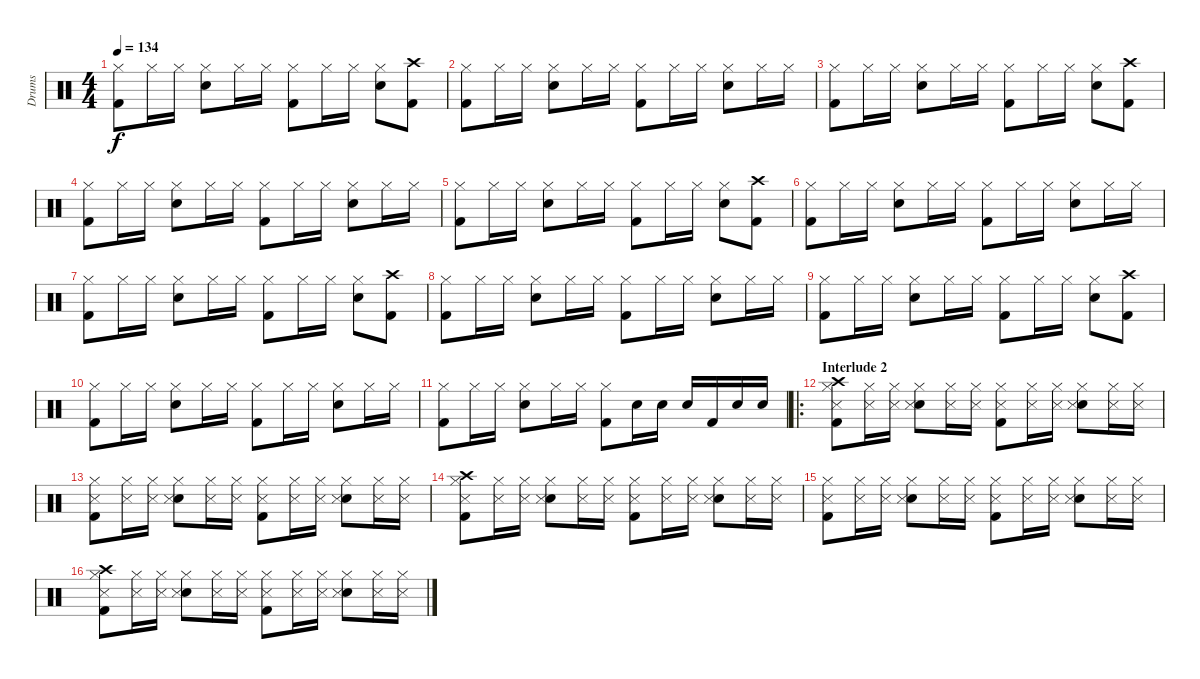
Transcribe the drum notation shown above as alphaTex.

\track ("Drums" "Drums") {instrument percussion}
\staff {score}
\articulation defaults
\ts (4 4)
\tempo 134
\clef neutral
\ks c
("Kick (hit) 2" "Hi-Hat (closed)").8{dy f} "Hi-Hat (closed)".16 "Hi-Hat (closed)".16 ("Snare (hit) 2" "Hi-Hat (closed)").8 "Hi-Hat (closed)".16 "Hi-Hat (closed)".16 ("Kick (hit) 2" "Hi-Hat (closed)").8 "Hi-Hat (closed)".16 "Hi-Hat (closed)".16 ("Snare (hit) 2" "Hi-Hat (closed)").8 ("Kick (hit) 2" "Crash high (hit)").8 |
("Kick (hit) 2" "Hi-Hat (closed)").8 "Hi-Hat (closed)".16 "Hi-Hat (closed)".16 ("Snare (hit) 2" "Hi-Hat (closed)").8 "Hi-Hat (closed)".16 "Hi-Hat (closed)".16 ("Kick (hit) 2" "Hi-Hat (closed)").8 "Hi-Hat (closed)".16 "Hi-Hat (closed)".16 ("Snare (hit) 2" "Hi-Hat (closed)").8 "Hi-Hat (closed)".16 "Hi-Hat (closed)".16 |
("Kick (hit) 2" "Hi-Hat (closed)").8 "Hi-Hat (closed)".16 "Hi-Hat (closed)".16 ("Snare (hit) 2" "Hi-Hat (closed)").8 "Hi-Hat (closed)".16 "Hi-Hat (closed)".16 ("Kick (hit) 2" "Hi-Hat (closed)").8 "Hi-Hat (closed)".16 "Hi-Hat (closed)".16 ("Snare (hit) 2" "Hi-Hat (closed)").8 ("Kick (hit) 2" "Crash high (hit)").8 |
("Kick (hit) 2" "Hi-Hat (closed)").8 "Hi-Hat (closed)".16 "Hi-Hat (closed)".16 ("Snare (hit) 2" "Hi-Hat (closed)").8 "Hi-Hat (closed)".16 "Hi-Hat (closed)".16 ("Kick (hit) 2" "Hi-Hat (closed)").8 "Hi-Hat (closed)".16 "Hi-Hat (closed)".16 ("Snare (hit) 2" "Hi-Hat (closed)").8 "Hi-Hat (closed)".16 "Hi-Hat (closed)".16 |
("Kick (hit) 2" "Hi-Hat (closed)").8 "Hi-Hat (closed)".16 "Hi-Hat (closed)".16 ("Snare (hit) 2" "Hi-Hat (closed)").8 "Hi-Hat (closed)".16 "Hi-Hat (closed)".16 ("Kick (hit) 2" "Hi-Hat (closed)").8 "Hi-Hat (closed)".16 "Hi-Hat (closed)".16 ("Snare (hit) 2" "Hi-Hat (closed)").8 ("Kick (hit) 2" "Crash high (hit)").8 |
("Kick (hit) 2" "Hi-Hat (closed)").8 "Hi-Hat (closed)".16 "Hi-Hat (closed)".16 ("Snare (hit) 2" "Hi-Hat (closed)").8 "Hi-Hat (closed)".16 "Hi-Hat (closed)".16 ("Kick (hit) 2" "Hi-Hat (closed)").8 "Hi-Hat (closed)".16 "Hi-Hat (closed)".16 ("Snare (hit) 2" "Hi-Hat (closed)").8 "Hi-Hat (closed)".16 "Hi-Hat (closed)".16 |
("Kick (hit) 2" "Hi-Hat (closed)").8 "Hi-Hat (closed)".16 "Hi-Hat (closed)".16 ("Snare (hit) 2" "Hi-Hat (closed)").8 "Hi-Hat (closed)".16 "Hi-Hat (closed)".16 ("Kick (hit) 2" "Hi-Hat (closed)").8 "Hi-Hat (closed)".16 "Hi-Hat (closed)".16 ("Snare (hit) 2" "Hi-Hat (closed)").8 ("Kick (hit) 2" "Crash high (hit)").8 |
("Kick (hit) 2" "Hi-Hat (closed)").8 "Hi-Hat (closed)".16 "Hi-Hat (closed)".16 ("Snare (hit) 2" "Hi-Hat (closed)").8 "Hi-Hat (closed)".16 "Hi-Hat (closed)".16 ("Kick (hit) 2" "Hi-Hat (closed)").8 "Hi-Hat (closed)".16 "Hi-Hat (closed)".16 ("Snare (hit) 2" "Hi-Hat (closed)").8 "Hi-Hat (closed)".16 "Hi-Hat (closed)".16 |
("Kick (hit) 2" "Hi-Hat (closed)").8 "Hi-Hat (closed)".16 "Hi-Hat (closed)".16 ("Snare (hit) 2" "Hi-Hat (closed)").8 "Hi-Hat (closed)".16 "Hi-Hat (closed)".16 ("Kick (hit) 2" "Hi-Hat (closed)").8 "Hi-Hat (closed)".16 "Hi-Hat (closed)".16 ("Snare (hit) 2" "Hi-Hat (closed)").8 ("Kick (hit) 2" "Crash high (hit)").8 |
("Kick (hit) 2" "Hi-Hat (closed)").8 "Hi-Hat (closed)".16 "Hi-Hat (closed)".16 ("Snare (hit) 2" "Hi-Hat (closed)").8 "Hi-Hat (closed)".16 "Hi-Hat (closed)".16 ("Kick (hit) 2" "Hi-Hat (closed)").8 "Hi-Hat (closed)".16 "Hi-Hat (closed)".16 ("Snare (hit) 2" "Hi-Hat (closed)").8 "Hi-Hat (closed)".16 "Hi-Hat (closed)".16 |
("Kick (hit) 2" "Hi-Hat (closed)").8 "Hi-Hat (closed)".16 "Hi-Hat (closed)".16 ("Snare (hit) 2" "Hi-Hat (closed)").8 "Hi-Hat (closed)".16 "Hi-Hat (closed)".16 ("Kick (hit) 2" "Hi-Hat (closed)").8 "Snare (hit) 2".16 "Snare (hit) 2".16 "Snare (hit) 2".16 "Kick (hit) 2".16 "Snare (hit) 2".16 "Snare (hit) 2".16 |
\ro
\section ("" "Interlude 2")
("Kick (hit) 2" "Hi-Hat (closed)" "Crash high (hit)" "Snare (side stick) 3").8 ("Hi-Hat (closed)" "Snare (side stick) 3").16 ("Hi-Hat (closed)" "Snare (side stick) 3").16 ("Snare (hit) 2" "Hi-Hat (closed)" "Snare (side stick) 3").8 ("Hi-Hat (closed)" "Snare (side stick) 3").16 ("Hi-Hat (closed)" "Snare (side stick) 3").16 ("Kick (hit) 2" "Hi-Hat (closed)" "Snare (side stick) 3").8 ("Hi-Hat (closed)" "Snare (side stick) 3").16 ("Hi-Hat (closed)" "Snare (side stick) 3").16 ("Snare (hit) 2" "Hi-Hat (closed)" "Snare (side stick) 3").8 ("Hi-Hat (closed)" "Snare (side stick) 3").16 ("Hi-Hat (closed)" "Snare (side stick) 3").16 |
("Kick (hit) 2" "Hi-Hat (closed)" "Snare (side stick) 3").8 ("Hi-Hat (closed)" "Snare (side stick) 3").16 ("Hi-Hat (closed)" "Snare (side stick) 3").16 ("Snare (hit) 2" "Hi-Hat (closed)" "Snare (side stick) 3").8 ("Hi-Hat (closed)" "Snare (side stick) 3").16 ("Hi-Hat (closed)" "Snare (side stick) 3").16 ("Kick (hit) 2" "Hi-Hat (closed)" "Snare (side stick) 3").8 ("Hi-Hat (closed)" "Snare (side stick) 3").16 ("Hi-Hat (closed)" "Snare (side stick) 3").16 ("Snare (hit) 2" "Hi-Hat (closed)" "Snare (side stick) 3").8 ("Hi-Hat (closed)" "Snare (side stick) 3").16 ("Hi-Hat (closed)" "Snare (side stick) 3").16 |
("Kick (hit) 2" "Hi-Hat (closed)" "Crash high (hit)" "Snare (side stick) 3").8 ("Hi-Hat (closed)" "Snare (side stick) 3").16 ("Hi-Hat (closed)" "Snare (side stick) 3").16 ("Snare (hit) 2" "Hi-Hat (closed)" "Snare (side stick) 3").8 ("Hi-Hat (closed)" "Snare (side stick) 3").16 ("Hi-Hat (closed)" "Snare (side stick) 3").16 ("Kick (hit) 2" "Hi-Hat (closed)" "Snare (side stick) 3").8 ("Hi-Hat (closed)" "Snare (side stick) 3").16 ("Hi-Hat (closed)" "Snare (side stick) 3").16 ("Snare (hit) 2" "Hi-Hat (closed)" "Snare (side stick) 3").8 ("Hi-Hat (closed)" "Snare (side stick) 3").16 ("Hi-Hat (closed)" "Snare (side stick) 3").16 |
("Kick (hit) 2" "Hi-Hat (closed)" "Snare (side stick) 3").8 ("Hi-Hat (closed)" "Snare (side stick) 3").16 ("Hi-Hat (closed)" "Snare (side stick) 3").16 ("Snare (hit) 2" "Hi-Hat (closed)" "Snare (side stick) 3").8 ("Hi-Hat (closed)" "Snare (side stick) 3").16 ("Hi-Hat (closed)" "Snare (side stick) 3").16 ("Kick (hit) 2" "Hi-Hat (closed)" "Snare (side stick) 3").8 ("Hi-Hat (closed)" "Snare (side stick) 3").16 ("Hi-Hat (closed)" "Snare (side stick) 3").16 ("Snare (hit) 2" "Hi-Hat (closed)" "Snare (side stick) 3").8 ("Hi-Hat (closed)" "Snare (side stick) 3").16 ("Hi-Hat (closed)" "Snare (side stick) 3").16 |
("Kick (hit) 2" "Hi-Hat (closed)" "Crash high (hit)" "Snare (side stick) 3").8 ("Hi-Hat (closed)" "Snare (side stick) 3").16 ("Hi-Hat (closed)" "Snare (side stick) 3").16 ("Snare (hit) 2" "Hi-Hat (closed)" "Snare (side stick) 3").8 ("Hi-Hat (closed)" "Snare (side stick) 3").16 ("Hi-Hat (closed)" "Snare (side stick) 3").16 ("Kick (hit) 2" "Hi-Hat (closed)" "Snare (side stick) 3").8 ("Hi-Hat (closed)" "Snare (side stick) 3").16 ("Hi-Hat (closed)" "Snare (side stick) 3").16 ("Snare (hit) 2" "Hi-Hat (closed)" "Snare (side stick) 3").8 ("Hi-Hat (closed)" "Snare (side stick) 3").16 ("Hi-Hat (closed)" "Snare (side stick) 3").16
